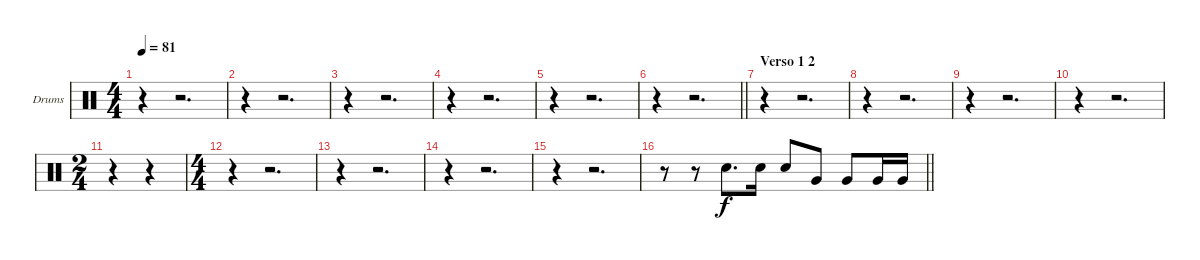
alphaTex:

\bracketExtendMode groupsimilarinstruments
\firstSystemTrackNameOrientation horizontal
\otherSystemsTrackNameOrientation horizontal
\track ("Batteria" "Drums") {instrument percussion}
\staff {score}
\articulation defaults
\ts (4 4)
\tempo 81
\clef neutral
\ks c
r.4{dy f} r.2{d} |
r.4 r.2{d} |
r.4 r.2{d} |
r.4 r.2{d} |
r.4 r.2{d} |
\barLineRight lightlight
r.4 r.2{d} |
\section ("" "Verso 1 2")
r.4 r.2{d} |
r.4 r.2{d} |
r.4 r.2{d} |
r.4 r.2{d} |
\ts (2 4)
\beaming (8 2 2)
r.4 r.4 |
\ts (4 4)
\beaming (8 2 2 2 2)
r.4 r.2{d} |
r.4 r.2{d} |
r.4 r.2{d} |
r.4 r.2{d} |
\barLineRight lightlight
r.8 r.8 "Snare (hit) 2".8{d} "Snare (hit) 2".16 "Snare (hit) 2".8 "Very Low Tom (hit)".8 "Very Low Tom (hit)".8 "Very Low Tom (hit)".16 "Very Low Tom (hit)".16
